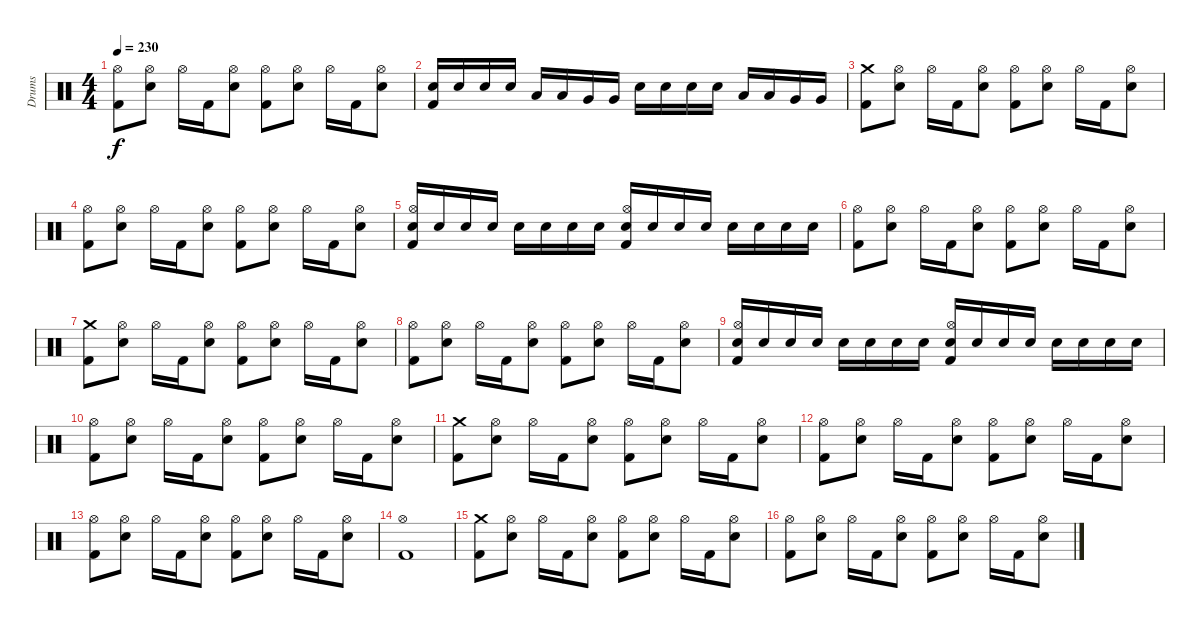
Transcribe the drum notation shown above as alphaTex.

\track ("Drums" "Drums") {instrument percussion}
\staff {score}
\articulation defaults
\ts (4 4)
\tempo 230
\clef neutral
\ks c
("Kick (hit) 2" "Hi-Hat (open)").8{dy f} ("Snare (hit) 2" "Hi-Hat (open)").8 "Hi-Hat (open)".16 "Kick (hit) 2".16 ("Snare (hit) 2" "Hi-Hat (open)").8 ("Kick (hit) 2" "Hi-Hat (open)").8 ("Snare (hit) 2" "Hi-Hat (open)").8 "Hi-Hat (open)".16 "Kick (hit) 2".16 ("Snare (hit) 2" "Hi-Hat (open)").8 |
("Snare (hit) 2" "Kick (hit) 2").16 "Snare (hit) 2".16 "Snare (hit) 2".16 "Snare (hit) 2".16 "Low Tom (hit)".16 "Low Tom (hit)".16 "Very Low Tom (hit)".16 "Very Low Tom (hit)".16 "Snare (hit) 2".16 "Snare (hit) 2".16 "Snare (hit) 2".16 "Snare (hit) 2".16 "Low Tom (hit)".16 "Low Tom (hit)".16 "Very Low Tom (hit)".16 "Very Low Tom (hit)".16 |
("Kick (hit) 2" "Crash medium (hit)").8 ("Snare (hit) 2" "Hi-Hat (open)").8 "Hi-Hat (open)".16 "Kick (hit) 2".16 ("Snare (hit) 2" "Hi-Hat (open)").8 ("Kick (hit) 2" "Hi-Hat (open)").8 ("Snare (hit) 2" "Hi-Hat (open)").8 "Hi-Hat (open)".16 "Kick (hit) 2".16 ("Snare (hit) 2" "Hi-Hat (open)").8 |
("Kick (hit) 2" "Hi-Hat (open)").8 ("Snare (hit) 2" "Hi-Hat (open)").8 "Hi-Hat (open)".16 "Kick (hit) 2".16 ("Snare (hit) 2" "Hi-Hat (open)").8 ("Kick (hit) 2" "Hi-Hat (open)").8 ("Snare (hit) 2" "Hi-Hat (open)").8 "Hi-Hat (open)".16 "Kick (hit) 2".16 ("Snare (hit) 2" "Hi-Hat (open)").8 |
("Kick (hit) 2" "Snare (hit) 2" "Hi-Hat (open)").16 "Snare (hit) 2".16 "Snare (hit) 2".16 "Snare (hit) 2".16 "Snare (hit) 2".16 "Snare (hit) 2".16 "Snare (hit) 2".16 "Snare (hit) 2".16 ("Kick (hit) 2" "Snare (hit) 2" "Hi-Hat (open)").16 "Snare (hit) 2".16 "Snare (hit) 2".16 "Snare (hit) 2".16 "Snare (hit) 2".16 "Snare (hit) 2".16 "Snare (hit) 2".16 "Snare (hit) 2".16 |
("Kick (hit) 2" "Hi-Hat (open)").8 ("Snare (hit) 2" "Hi-Hat (open)").8 "Hi-Hat (open)".16 "Kick (hit) 2".16 ("Snare (hit) 2" "Hi-Hat (open)").8 ("Kick (hit) 2" "Hi-Hat (open)").8 ("Snare (hit) 2" "Hi-Hat (open)").8 "Hi-Hat (open)".16 "Kick (hit) 2".16 ("Snare (hit) 2" "Hi-Hat (open)").8 |
("Kick (hit) 2" "Crash medium (hit)").8 ("Snare (hit) 2" "Hi-Hat (open)").8 "Hi-Hat (open)".16 "Kick (hit) 2".16 ("Snare (hit) 2" "Hi-Hat (open)").8 ("Kick (hit) 2" "Hi-Hat (open)").8 ("Snare (hit) 2" "Hi-Hat (open)").8 "Hi-Hat (open)".16 "Kick (hit) 2".16 ("Snare (hit) 2" "Hi-Hat (open)").8 |
("Kick (hit) 2" "Hi-Hat (open)").8 ("Snare (hit) 2" "Hi-Hat (open)").8 "Hi-Hat (open)".16 "Kick (hit) 2".16 ("Snare (hit) 2" "Hi-Hat (open)").8 ("Kick (hit) 2" "Hi-Hat (open)").8 ("Snare (hit) 2" "Hi-Hat (open)").8 "Hi-Hat (open)".16 "Kick (hit) 2".16 ("Snare (hit) 2" "Hi-Hat (open)").8 |
("Kick (hit) 2" "Snare (hit) 2" "Hi-Hat (open)").16 "Snare (hit) 2".16 "Snare (hit) 2".16 "Snare (hit) 2".16 "Snare (hit) 2".16 "Snare (hit) 2".16 "Snare (hit) 2".16 "Snare (hit) 2".16 ("Kick (hit) 2" "Snare (hit) 2" "Hi-Hat (open)").16 "Snare (hit) 2".16 "Snare (hit) 2".16 "Snare (hit) 2".16 "Snare (hit) 2".16 "Snare (hit) 2".16 "Snare (hit) 2".16 "Snare (hit) 2".16 |
("Kick (hit) 2" "Hi-Hat (open)").8 ("Snare (hit) 2" "Hi-Hat (open)").8 "Hi-Hat (open)".16 "Kick (hit) 2".16 ("Snare (hit) 2" "Hi-Hat (open)").8 ("Kick (hit) 2" "Hi-Hat (open)").8 ("Snare (hit) 2" "Hi-Hat (open)").8 "Hi-Hat (open)".16 "Kick (hit) 2".16 ("Snare (hit) 2" "Hi-Hat (open)").8 |
("Kick (hit) 2" "Crash medium (hit)").8 ("Snare (hit) 2" "Hi-Hat (open)").8 "Hi-Hat (open)".16 "Kick (hit) 2".16 ("Snare (hit) 2" "Hi-Hat (open)").8 ("Kick (hit) 2" "Hi-Hat (open)").8 ("Snare (hit) 2" "Hi-Hat (open)").8 "Hi-Hat (open)".16 "Kick (hit) 2".16 ("Snare (hit) 2" "Hi-Hat (open)").8 |
("Kick (hit) 2" "Hi-Hat (open)").8 ("Snare (hit) 2" "Hi-Hat (open)").8 "Hi-Hat (open)".16 "Kick (hit) 2".16 ("Snare (hit) 2" "Hi-Hat (open)").8 ("Kick (hit) 2" "Hi-Hat (open)").8 ("Snare (hit) 2" "Hi-Hat (open)").8 "Hi-Hat (open)".16 "Kick (hit) 2".16 ("Snare (hit) 2" "Hi-Hat (open)").8 |
("Kick (hit) 2" "Hi-Hat (open)").8 ("Snare (hit) 2" "Hi-Hat (open)").8 "Hi-Hat (open)".16 "Kick (hit) 2".16 ("Snare (hit) 2" "Hi-Hat (open)").8 ("Kick (hit) 2" "Hi-Hat (open)").8 ("Snare (hit) 2" "Hi-Hat (open)").8 "Hi-Hat (open)".16 "Kick (hit) 2".16 ("Snare (hit) 2" "Hi-Hat (open)").8 |
("Kick (hit) 2" "Hi-Hat (open)").1 |
("Kick (hit) 2" "Crash medium (hit)").8 ("Snare (hit) 2" "Hi-Hat (open)").8 "Hi-Hat (open)".16 "Kick (hit) 2".16 ("Snare (hit) 2" "Hi-Hat (open)").8 ("Kick (hit) 2" "Hi-Hat (open)").8 ("Snare (hit) 2" "Hi-Hat (open)").8 "Hi-Hat (open)".16 "Kick (hit) 2".16 ("Snare (hit) 2" "Hi-Hat (open)").8 |
("Kick (hit) 2" "Hi-Hat (open)").8 ("Snare (hit) 2" "Hi-Hat (open)").8 "Hi-Hat (open)".16 "Kick (hit) 2".16 ("Snare (hit) 2" "Hi-Hat (open)").8 ("Kick (hit) 2" "Hi-Hat (open)").8 ("Snare (hit) 2" "Hi-Hat (open)").8 "Hi-Hat (open)".16 "Kick (hit) 2".16 ("Snare (hit) 2" "Hi-Hat (open)").8
